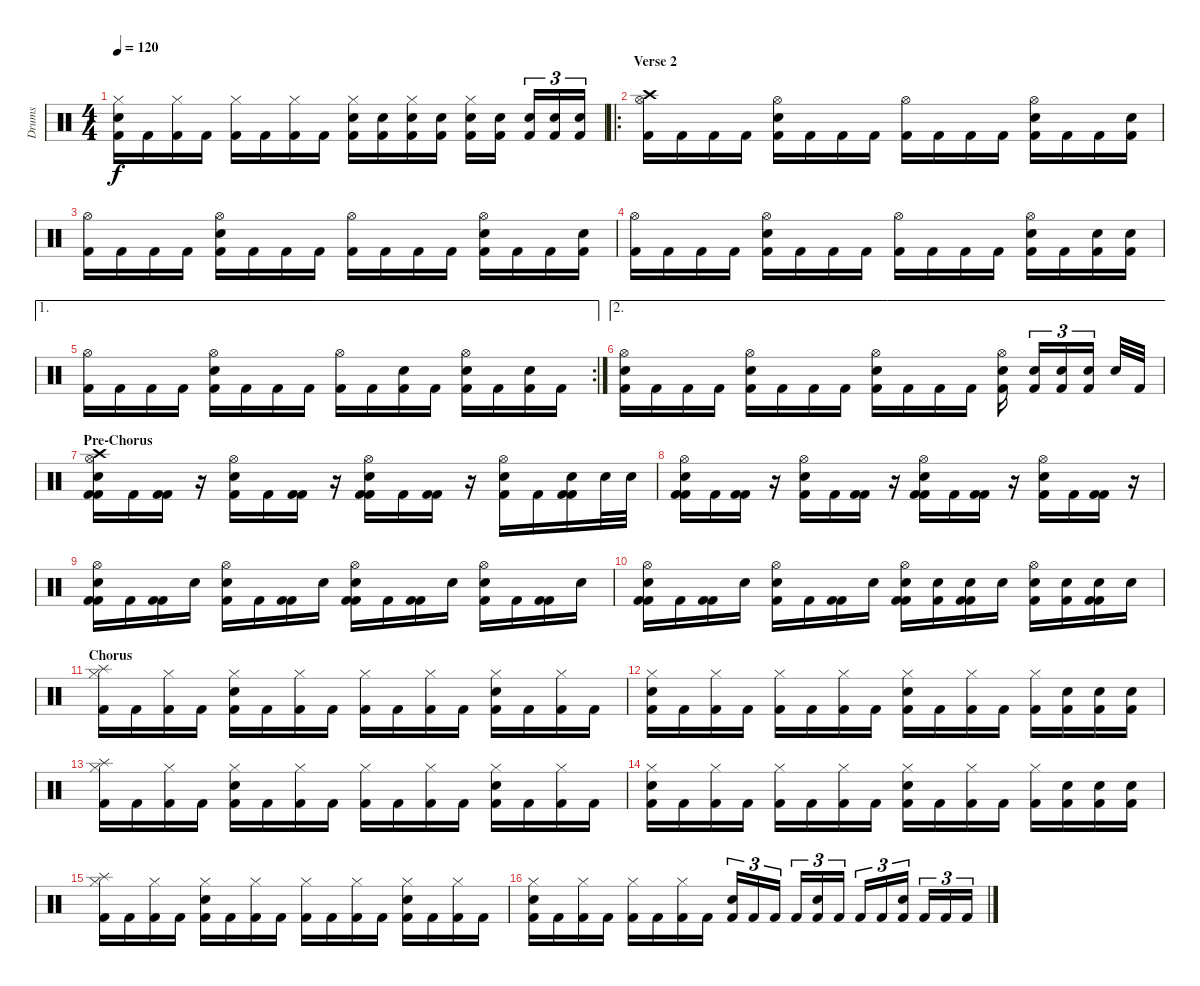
\track ("Drums" "Drums") {instrument percussion}
\staff {score}
\articulation defaults
\ts (4 4)
\tempo 120
\clef neutral
\ks c
("Hi-Hat (closed)" "Electric Snare (hit)" "Kick (hit) 2").16{dy f} "Kick (hit) 2".16 ("Hi-Hat (closed)" "Kick (hit) 2").16 "Kick (hit) 2".16 ("Hi-Hat (closed)" "Kick (hit) 2").16 "Kick (hit) 2".16 ("Hi-Hat (closed)" "Kick (hit) 2").16 "Kick (hit) 2".16 ("Hi-Hat (closed)" "Electric Snare (hit)" "Kick (hit) 2").16 ("Electric Snare (hit)" "Kick (hit) 2").16 ("Hi-Hat (closed)" "Electric Snare (hit)" "Kick (hit) 2").16 ("Electric Snare (hit)" "Kick (hit) 2").16 ("Hi-Hat (closed)" "Electric Snare (hit)" "Kick (hit) 2").16 ("Electric Snare (hit)" "Kick (hit) 2").16 ("Electric Snare (hit)" "Kick (hit) 2").16{tu (3 2)} ("Electric Snare (hit)" "Kick (hit) 2").16{tu (3 2)} ("Electric Snare (hit)" "Kick (hit) 2").16{tu (3 2)} |
\ro
\section ("" "Verse 2")
("Crash high (hit)" "Hi-Hat (open)" "Kick (hit) 2").16 "Kick (hit) 2".16 "Kick (hit) 2".16 "Kick (hit) 2".16 ("Hi-Hat (open)" "Electric Snare (hit)" "Kick (hit) 2").16 "Kick (hit) 2".16 "Kick (hit) 2".16 "Kick (hit) 2".16 ("Hi-Hat (open)" "Kick (hit) 2").16 "Kick (hit) 2".16 "Kick (hit) 2".16 "Kick (hit) 2".16 ("Hi-Hat (open)" "Electric Snare (hit)" "Kick (hit) 2").16 "Kick (hit) 2".16 "Kick (hit) 2".16 ("Electric Snare (hit)" "Kick (hit) 2").16 |
("Hi-Hat (open)" "Kick (hit) 2").16 "Kick (hit) 2".16 "Kick (hit) 2".16 "Kick (hit) 2".16 ("Hi-Hat (open)" "Electric Snare (hit)" "Kick (hit) 2").16 "Kick (hit) 2".16 "Kick (hit) 2".16 "Kick (hit) 2".16 ("Hi-Hat (open)" "Kick (hit) 2").16 "Kick (hit) 2".16 "Kick (hit) 2".16 "Kick (hit) 2".16 ("Hi-Hat (open)" "Electric Snare (hit)" "Kick (hit) 2").16 "Kick (hit) 2".16 "Kick (hit) 2".16 ("Electric Snare (hit)" "Kick (hit) 2").16 |
("Hi-Hat (open)" "Kick (hit) 2").16 "Kick (hit) 2".16 "Kick (hit) 2".16 "Kick (hit) 2".16 ("Hi-Hat (open)" "Electric Snare (hit)" "Kick (hit) 2").16 "Kick (hit) 2".16 "Kick (hit) 2".16 "Kick (hit) 2".16 ("Hi-Hat (open)" "Kick (hit) 2").16 "Kick (hit) 2".16 "Kick (hit) 2".16 "Kick (hit) 2".16 ("Hi-Hat (open)" "Electric Snare (hit)" "Kick (hit) 2").16 "Kick (hit) 2".16 ("Electric Snare (hit)" "Kick (hit) 2").16 ("Electric Snare (hit)" "Kick (hit) 2").16 |
\ae 1
\rc 2
("Hi-Hat (open)" "Kick (hit) 2").16 "Kick (hit) 2".16 "Kick (hit) 2".16 "Kick (hit) 2".16 ("Hi-Hat (open)" "Electric Snare (hit)" "Kick (hit) 2").16 "Kick (hit) 2".16 "Kick (hit) 2".16 "Kick (hit) 2".16 ("Hi-Hat (open)" "Kick (hit) 2").16 "Kick (hit) 2".16 ("Electric Snare (hit)" "Kick (hit) 2").16 "Kick (hit) 2".16 ("Hi-Hat (open)" "Electric Snare (hit)" "Kick (hit) 2").16 "Kick (hit) 2".16 ("Electric Snare (hit)" "Kick (hit) 2").16 "Kick (hit) 2".16 |
\ae 2
("Hi-Hat (open)" "Electric Snare (hit)" "Kick (hit) 2").16 "Kick (hit) 2".16 "Kick (hit) 2".16 "Kick (hit) 2".16 ("Hi-Hat (open)" "Electric Snare (hit)" "Kick (hit) 2").16 "Kick (hit) 2".16 "Kick (hit) 2".16 "Kick (hit) 2".16 ("Hi-Hat (open)" "Electric Snare (hit)" "Kick (hit) 2").16 "Kick (hit) 2".16 "Kick (hit) 2".16 "Kick (hit) 2".16 ("Hi-Hat (open)" "Electric Snare (hit)" "Kick (hit) 2").16 ("Electric Snare (hit)" "Kick (hit) 2").16{tu (3 2)} ("Electric Snare (hit)" "Kick (hit) 2").16{tu (3 2)} ("Electric Snare (hit)" "Kick (hit) 2").16{tu (3 2)} "Electric Snare (hit)".32 "Kick (hit) 2".32 |
\section ("" "Pre-Chorus")
("Crash high (hit)" "Hi-Hat (open)" "Electric Snare (hit)" "Kick (hit) 2" "Kick (hit) 2").16 "Kick (hit) 2".16 ("Kick (hit) 2" "Kick (hit) 2").16 r.16 ("Hi-Hat (open)" "Electric Snare (hit)" "Kick (hit) 2").16 "Kick (hit) 2".16 ("Kick (hit) 2" "Kick (hit) 2").16 r.16 ("Hi-Hat (open)" "Electric Snare (hit)" "Kick (hit) 2" "Kick (hit) 2").16 "Kick (hit) 2".16 ("Kick (hit) 2" "Kick (hit) 2").16 r.16 ("Hi-Hat (open)" "Electric Snare (hit)" "Kick (hit) 2").16 "Kick (hit) 2".16 ("Electric Snare (hit)" "Kick (hit) 2" "Kick (hit) 2").16 "Electric Snare (hit)".32 "Electric Snare (hit)".32 |
("Hi-Hat (open)" "Electric Snare (hit)" "Kick (hit) 2" "Kick (hit) 2").16 "Kick (hit) 2".16 ("Kick (hit) 2" "Kick (hit) 2").16 r.16 ("Hi-Hat (open)" "Electric Snare (hit)" "Kick (hit) 2").16 "Kick (hit) 2".16 ("Kick (hit) 2" "Kick (hit) 2").16 r.16 ("Hi-Hat (open)" "Electric Snare (hit)" "Kick (hit) 2" "Kick (hit) 2").16 "Kick (hit) 2".16 ("Kick (hit) 2" "Kick (hit) 2").16 r.16 ("Hi-Hat (open)" "Electric Snare (hit)" "Kick (hit) 2").16 "Kick (hit) 2".16 ("Kick (hit) 2" "Kick (hit) 2").16 r.16 |
("Hi-Hat (open)" "Electric Snare (hit)" "Kick (hit) 2" "Kick (hit) 2").16 "Kick (hit) 2".16 ("Kick (hit) 2" "Kick (hit) 2").16 "Electric Snare (hit)".16 ("Hi-Hat (open)" "Electric Snare (hit)" "Kick (hit) 2").16 "Kick (hit) 2".16 ("Kick (hit) 2" "Kick (hit) 2").16 "Electric Snare (hit)".16 ("Hi-Hat (open)" "Electric Snare (hit)" "Kick (hit) 2" "Kick (hit) 2").16 "Kick (hit) 2".16 ("Kick (hit) 2" "Kick (hit) 2").16 "Electric Snare (hit)".16 ("Hi-Hat (open)" "Electric Snare (hit)" "Kick (hit) 2").16 "Kick (hit) 2".16 ("Kick (hit) 2" "Kick (hit) 2").16 "Electric Snare (hit)".16 |
("Hi-Hat (open)" "Electric Snare (hit)" "Kick (hit) 2" "Kick (hit) 2").16 "Kick (hit) 2".16 ("Kick (hit) 2" "Kick (hit) 2").16 "Electric Snare (hit)".16 ("Hi-Hat (open)" "Electric Snare (hit)" "Kick (hit) 2").16 "Kick (hit) 2".16 ("Kick (hit) 2" "Kick (hit) 2").16 "Electric Snare (hit)".16 ("Hi-Hat (open)" "Electric Snare (hit)" "Kick (hit) 2" "Kick (hit) 2").16 ("Electric Snare (hit)" "Kick (hit) 2").16 ("Electric Snare (hit)" "Kick (hit) 2" "Kick (hit) 2").16 "Electric Snare (hit)".16 ("Hi-Hat (open)" "Electric Snare (hit)" "Kick (hit) 2").16 ("Electric Snare (hit)" "Kick (hit) 2").16 ("Electric Snare (hit)" "Kick (hit) 2" "Kick (hit) 2").16 "Electric Snare (hit)".16 |
\section ("" "Chorus")
("Splash (hit)" "Hi-Hat (closed)" "Kick (hit) 2").16 "Kick (hit) 2".16 ("Hi-Hat (closed)" "Kick (hit) 2").16 "Kick (hit) 2".16 ("Hi-Hat (closed)" "Electric Snare (hit)" "Kick (hit) 2").16 "Kick (hit) 2".16 ("Hi-Hat (closed)" "Kick (hit) 2").16 "Kick (hit) 2".16 ("Hi-Hat (closed)" "Kick (hit) 2").16 "Kick (hit) 2".16 ("Hi-Hat (closed)" "Kick (hit) 2").16 "Kick (hit) 2".16 ("Hi-Hat (closed)" "Electric Snare (hit)" "Kick (hit) 2").16 "Kick (hit) 2".16 ("Hi-Hat (closed)" "Kick (hit) 2").16 "Kick (hit) 2".16 |
("Hi-Hat (closed)" "Electric Snare (hit)" "Kick (hit) 2").16 "Kick (hit) 2".16 ("Hi-Hat (closed)" "Kick (hit) 2").16 "Kick (hit) 2".16 ("Hi-Hat (closed)" "Kick (hit) 2").16 "Kick (hit) 2".16 ("Hi-Hat (closed)" "Kick (hit) 2").16 "Kick (hit) 2".16 ("Hi-Hat (closed)" "Electric Snare (hit)" "Kick (hit) 2").16 "Kick (hit) 2".16 ("Hi-Hat (closed)" "Kick (hit) 2").16 "Kick (hit) 2".16 ("Hi-Hat (closed)" "Kick (hit) 2").16 ("Electric Snare (hit)" "Kick (hit) 2").16 ("Electric Snare (hit)" "Kick (hit) 2").16 ("Electric Snare (hit)" "Kick (hit) 2").16 |
("Splash (hit)" "Hi-Hat (closed)" "Kick (hit) 2").16 "Kick (hit) 2".16 ("Hi-Hat (closed)" "Kick (hit) 2").16 "Kick (hit) 2".16 ("Hi-Hat (closed)" "Electric Snare (hit)" "Kick (hit) 2").16 "Kick (hit) 2".16 ("Hi-Hat (closed)" "Kick (hit) 2").16 "Kick (hit) 2".16 ("Hi-Hat (closed)" "Kick (hit) 2").16 "Kick (hit) 2".16 ("Hi-Hat (closed)" "Kick (hit) 2").16 "Kick (hit) 2".16 ("Hi-Hat (closed)" "Electric Snare (hit)" "Kick (hit) 2").16 "Kick (hit) 2".16 ("Hi-Hat (closed)" "Kick (hit) 2").16 "Kick (hit) 2".16 |
("Hi-Hat (closed)" "Electric Snare (hit)" "Kick (hit) 2").16 "Kick (hit) 2".16 ("Hi-Hat (closed)" "Kick (hit) 2").16 "Kick (hit) 2".16 ("Hi-Hat (closed)" "Kick (hit) 2").16 "Kick (hit) 2".16 ("Hi-Hat (closed)" "Kick (hit) 2").16 "Kick (hit) 2".16 ("Hi-Hat (closed)" "Electric Snare (hit)" "Kick (hit) 2").16 "Kick (hit) 2".16 ("Hi-Hat (closed)" "Kick (hit) 2").16 "Kick (hit) 2".16 ("Hi-Hat (closed)" "Kick (hit) 2").16 ("Electric Snare (hit)" "Kick (hit) 2").16 ("Electric Snare (hit)" "Kick (hit) 2").16 ("Electric Snare (hit)" "Kick (hit) 2").16 |
("Splash (hit)" "Hi-Hat (closed)" "Kick (hit) 2").16 "Kick (hit) 2".16 ("Hi-Hat (closed)" "Kick (hit) 2").16 "Kick (hit) 2".16 ("Hi-Hat (closed)" "Electric Snare (hit)" "Kick (hit) 2").16 "Kick (hit) 2".16 ("Hi-Hat (closed)" "Kick (hit) 2").16 "Kick (hit) 2".16 ("Hi-Hat (closed)" "Kick (hit) 2").16 "Kick (hit) 2".16 ("Hi-Hat (closed)" "Kick (hit) 2").16 "Kick (hit) 2".16 ("Hi-Hat (closed)" "Electric Snare (hit)" "Kick (hit) 2").16 "Kick (hit) 2".16 ("Hi-Hat (closed)" "Kick (hit) 2").16 "Kick (hit) 2".16 |
("Hi-Hat (closed)" "Electric Snare (hit)" "Kick (hit) 2").16 "Kick (hit) 2".16 ("Hi-Hat (closed)" "Kick (hit) 2").16 "Kick (hit) 2".16 ("Hi-Hat (closed)" "Kick (hit) 2").16 "Kick (hit) 2".16 ("Hi-Hat (closed)" "Kick (hit) 2").16 "Kick (hit) 2".16 ("Electric Snare (hit)" "Kick (hit) 2").16{tu (3 2)} "Kick (hit) 2".16{tu (3 2)} "Kick (hit) 2".16{tu (3 2)} "Kick (hit) 2".16{tu (3 2)} ("Electric Snare (hit)" "Kick (hit) 2").16{tu (3 2)} "Kick (hit) 2".16{tu (3 2)} "Kick (hit) 2".16{tu (3 2)} "Kick (hit) 2".16{tu (3 2)} ("Electric Snare (hit)" "Kick (hit) 2").16{tu (3 2)} "Kick (hit) 2".16{tu (3 2)} "Kick (hit) 2".16{tu (3 2)} "Kick (hit) 2".16{tu (3 2)}
